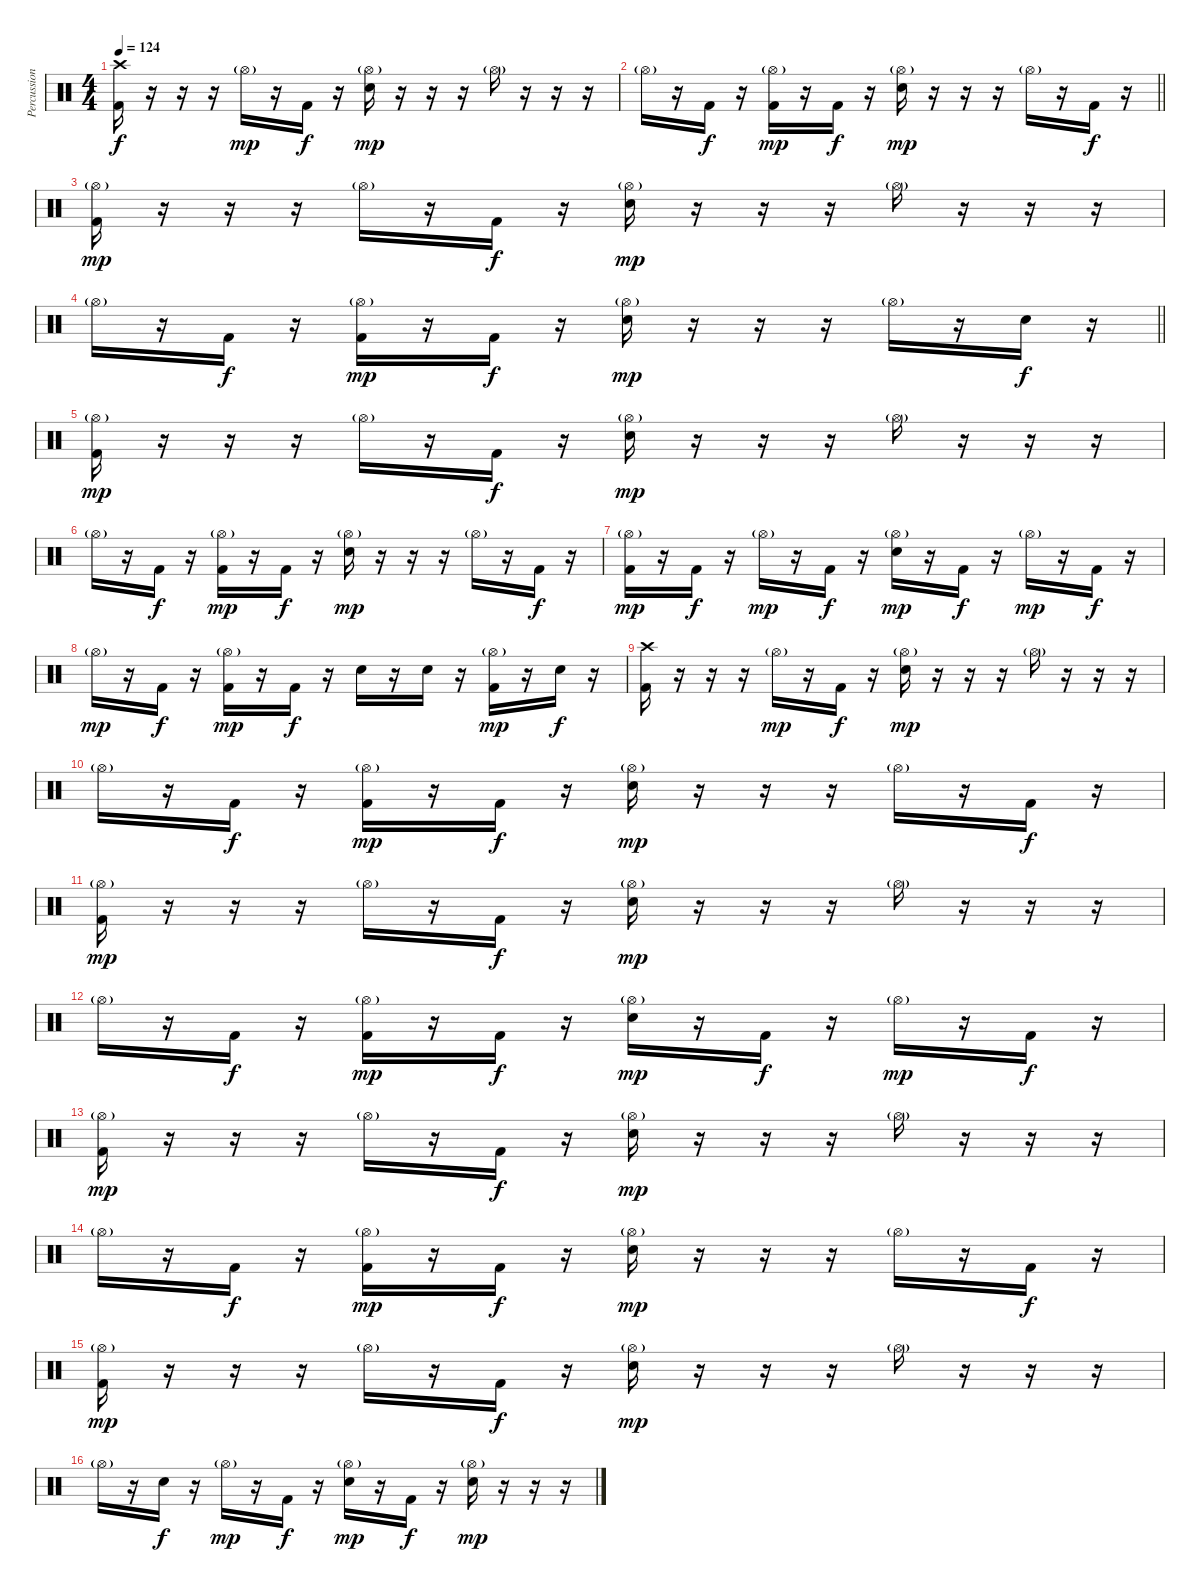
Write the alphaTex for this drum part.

\track ("Percussion" "Percussion") {instrument percussion}
\staff {score}
\articulation defaults
\ts (4 4)
\section ("" "")
\tempo 124
\clef neutral
\ks c
("Kick (hit) 2" "Crash high (hit)").16{dy f volume 12} r.16 r.16 r.16 "Hi-Hat (open)"{g}.16{dy mp} r.16 "Kick (hit) 2".16{dy f} r.16 ("Electric Snare (hit)" "Hi-Hat (open)"{g}).16{dy mp} r.16 r.16 r.16 "Hi-Hat (open)"{g}.16 r.16 r.16 r.16 |
\barLineRight lightlight "Hi-Hat (open)"{g}.16
r.16 "Kick (hit) 2".16{dy f} r.16 ("Kick (hit) 2" "Hi-Hat (open)"{g}).16{dy mp} r.16 "Kick (hit) 2".16{dy f} r.16 ("Electric Snare (hit)" "Hi-Hat (open)"{g}).16{dy mp} r.16 r.16 r.16 "Hi-Hat (open)"{g}.16 r.16 "Kick (hit) 2".16{dy f} r.16 |
("Kick (hit) 2" "Hi-Hat (open)"{g}).16{dy mp} r.16 r.16 r.16 "Hi-Hat (open)"{g}.16 r.16 "Kick (hit) 2".16{dy f} r.16 ("Electric Snare (hit)" "Hi-Hat (open)"{g}).16{dy mp} r.16 r.16 r.16 "Hi-Hat (open)"{g}.16 r.16 r.16 r.16 |
\barLineRight lightlight "Hi-Hat (open)"{g}.16
r.16 "Kick (hit) 2".16{dy f} r.16 ("Kick (hit) 2" "Hi-Hat (open)"{g}).16{dy mp} r.16 "Kick (hit) 2".16{dy f} r.16 ("Electric Snare (hit)" "Hi-Hat (open)"{g}).16{dy mp} r.16 r.16 r.16 "Hi-Hat (open)"{g}.16 r.16 "Electric Snare (hit)".16{dy f} r.16 |
("Kick (hit) 2" "Hi-Hat (open)"{g}).16{dy mp} r.16 r.16 r.16 "Hi-Hat (open)"{g}.16 r.16 "Kick (hit) 2".16{dy f} r.16 ("Electric Snare (hit)" "Hi-Hat (open)"{g}).16{dy mp} r.16 r.16 r.16 "Hi-Hat (open)"{g}.16 r.16 r.16 r.16 |
"Hi-Hat (open)"{g}.16 r.16 "Kick (hit) 2".16{dy f} r.16 ("Kick (hit) 2" "Hi-Hat (open)"{g}).16{dy mp} r.16 "Kick (hit) 2".16{dy f} r.16 ("Electric Snare (hit)" "Hi-Hat (open)"{g}).16{dy mp} r.16 r.16 r.16 "Hi-Hat (open)"{g}.16 r.16 "Kick (hit) 2".16{dy f} r.16 |
("Kick (hit) 2" "Hi-Hat (open)"{g}).16{dy mp} r.16 "Kick (hit) 2".16{dy f} r.16 "Hi-Hat (open)"{g}.16{dy mp} r.16 "Kick (hit) 2".16{dy f} r.16 ("Electric Snare (hit)" "Hi-Hat (open)"{g}).16{dy mp} r.16 "Kick (hit) 2".16{dy f} r.16 "Hi-Hat (open)"{g}.16{dy mp} r.16 "Kick (hit) 2".16{dy f} r.16 |
"Hi-Hat (open)"{g}.16{dy mp} r.16 "Kick (hit) 2".16{dy f} r.16 ("Kick (hit) 2" "Hi-Hat (open)"{g}).16{dy mp} r.16 "Kick (hit) 2".16{dy f} r.16 "Electric Snare (hit)".16 r.16 "Electric Snare (hit)".16 r.16 ("Kick (hit) 2" "Hi-Hat (open)"{g}).16{dy mp} r.16 "Electric Snare (hit)".16{dy f} r.16 |
("Kick (hit) 2" "Crash high (hit)").16 r.16 r.16 r.16 "Hi-Hat (open)"{g}.16{dy mp} r.16 "Kick (hit) 2".16{dy f} r.16 ("Electric Snare (hit)" "Hi-Hat (open)"{g}).16{dy mp} r.16 r.16 r.16 "Hi-Hat (open)"{g}.16 r.16 r.16 r.16 |
"Hi-Hat (open)"{g}.16 r.16 "Kick (hit) 2".16{dy f} r.16 ("Kick (hit) 2" "Hi-Hat (open)"{g}).16{dy mp} r.16 "Kick (hit) 2".16{dy f} r.16 ("Electric Snare (hit)" "Hi-Hat (open)"{g}).16{dy mp} r.16 r.16 r.16 "Hi-Hat (open)"{g}.16 r.16 "Kick (hit) 2".16{dy f} r.16 |
("Kick (hit) 2" "Hi-Hat (open)"{g}).16{dy mp} r.16 r.16 r.16 "Hi-Hat (open)"{g}.16 r.16 "Kick (hit) 2".16{dy f} r.16 ("Electric Snare (hit)" "Hi-Hat (open)"{g}).16{dy mp} r.16 r.16 r.16 "Hi-Hat (open)"{g}.16 r.16 r.16 r.16 |
"Hi-Hat (open)"{g}.16 r.16 "Kick (hit) 2".16{dy f} r.16 ("Kick (hit) 2" "Hi-Hat (open)"{g}).16{dy mp} r.16 "Kick (hit) 2".16{dy f} r.16 ("Electric Snare (hit)" "Hi-Hat (open)"{g}).16{dy mp} r.16 "Kick (hit) 2".16{dy f} r.16 "Hi-Hat (open)"{g}.16{dy mp} r.16 "Kick (hit) 2".16{dy f} r.16 |
("Kick (hit) 2" "Hi-Hat (open)"{g}).16{dy mp} r.16 r.16 r.16 "Hi-Hat (open)"{g}.16 r.16 "Kick (hit) 2".16{dy f} r.16 ("Electric Snare (hit)" "Hi-Hat (open)"{g}).16{dy mp} r.16 r.16 r.16 "Hi-Hat (open)"{g}.16 r.16 r.16 r.16 |
"Hi-Hat (open)"{g}.16 r.16 "Kick (hit) 2".16{dy f} r.16 ("Kick (hit) 2" "Hi-Hat (open)"{g}).16{dy mp} r.16 "Kick (hit) 2".16{dy f} r.16 ("Electric Snare (hit)" "Hi-Hat (open)"{g}).16{dy mp} r.16 r.16 r.16 "Hi-Hat (open)"{g}.16 r.16 "Kick (hit) 2".16{dy f} r.16 |
("Kick (hit) 2" "Hi-Hat (open)"{g}).16{dy mp} r.16 r.16 r.16 "Hi-Hat (open)"{g}.16 r.16 "Kick (hit) 2".16{dy f} r.16 ("Electric Snare (hit)" "Hi-Hat (open)"{g}).16{dy mp} r.16 r.16 r.16 "Hi-Hat (open)"{g}.16 r.16 r.16 r.16 |
"Hi-Hat (open)"{g}.16 r.16 "Electric Snare (hit)".16{dy f} r.16 "Hi-Hat (open)"{g}.16{dy mp} r.16 "Kick (hit) 2".16{dy f} r.16 ("Electric Snare (hit)" "Hi-Hat (open)"{g}).16{dy mp} r.16 "Kick (hit) 2".16{dy f} r.16 ("Electric Snare (hit)" "Hi-Hat (open)"{g}).16{dy mp} r.16 r.16 r.16
